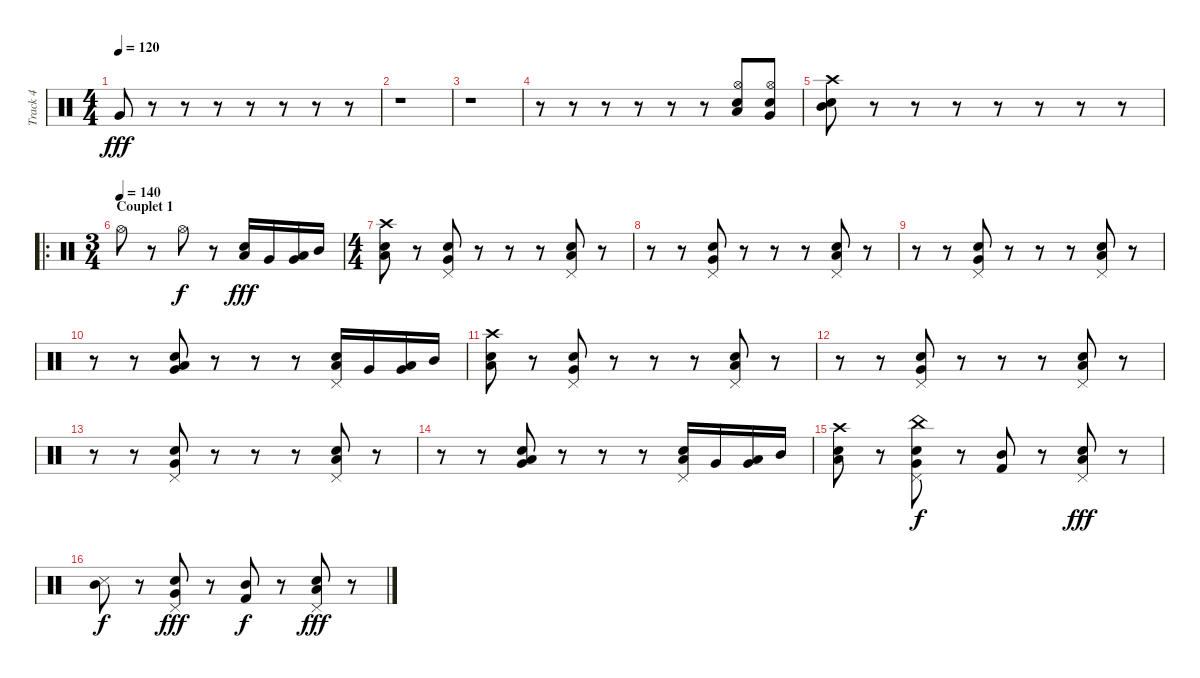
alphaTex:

\track ("Track 4" "Track 4") {instrument percussion}
\staff {score}
\articulation defaults
\ts (4 4)
\tempo 120
\clef neutral
\ks c "Very Low Tom (hit)".8{dy fff}
r.8 r.8 r.8 r.8 r.8 r.8 r.8 |
r.1 |
r.1 |
r.8 r.8 r.8 r.8 r.8 r.8 ("Low Tom (hit)" "Hi-Hat (open)" "Electric Snare (hit)").8 ("Hi-Hat (open)" "Very Low Tom (hit)" "Snare (hit) 2").8 |
("Crash high (hit)" "Mid Tom (hit)" "Electric Snare (hit)").8 r.8 r.8 r.8 r.8 r.8 r.8 r.8 |
\ro
\ts (3 4)
\section ("" "Couplet 1")
\tempo (140)
"Hi-Hat (open)".8 r.8 "Hi-Hat (open)".8{dy f} r.8 ("Low Tom (hit)" "Electric Snare (hit)").16{dy fff} "Very Low Tom (hit)".16 ("Very Low Tom (hit)" "Low Tom (hit)").16 "Mid Tom (hit)".16 |
\ts (4 4)
("Electric Snare (hit)" "Low Tom (hit)" "Crash high (hit)").8 r.8 ("Pedal Hi-Hat (hit)" "Snare (hit) 2" "Very Low Tom (hit)").8 r.8 r.8 r.8 ("Low Tom (hit)" "Electric Snare (hit)" "Pedal Hi-Hat (hit)").8 r.8 |
r.8 r.8 ("Pedal Hi-Hat (hit)" "Snare (hit) 2" "Very Low Tom (hit)").8 r.8 r.8 r.8 ("Low Tom (hit)" "Electric Snare (hit)" "Pedal Hi-Hat (hit)").8 r.8 |
r.8 r.8 ("Pedal Hi-Hat (hit)" "Snare (hit) 2" "Very Low Tom (hit)").8 r.8 r.8 r.8 ("Low Tom (hit)" "Electric Snare (hit)" "Pedal Hi-Hat (hit)").8 r.8 |
r.8 r.8 ("Snare (hit) 2" "Low Tom (hit)" "Very Low Tom (hit)").8 r.8 r.8 r.8 ("Low Tom (hit)" "Pedal Hi-Hat (hit)" "Electric Snare (hit)").16 "Very Low Tom (hit)".16 ("Very Low Tom (hit)" "Low Tom (hit)").16 "Mid Tom (hit)".16 |
("Electric Snare (hit)" "Low Tom (hit)" "Crash high (hit)").8 r.8 ("Pedal Hi-Hat (hit)" "Snare (hit) 2" "Very Low Tom (hit)").8 r.8 r.8 r.8 ("Low Tom (hit)" "Electric Snare (hit)" "Pedal Hi-Hat (hit)").8 r.8 |
r.8 r.8 ("Pedal Hi-Hat (hit)" "Snare (hit) 2" "Very Low Tom (hit)").8 r.8 r.8 r.8 ("Low Tom (hit)" "Electric Snare (hit)" "Pedal Hi-Hat (hit)").8 r.8 |
r.8 r.8 ("Pedal Hi-Hat (hit)" "Snare (hit) 2" "Very Low Tom (hit)").8 r.8 r.8 r.8 ("Low Tom (hit)" "Electric Snare (hit)" "Pedal Hi-Hat (hit)").8 r.8 |
r.8 r.8 ("Snare (hit) 2" "Low Tom (hit)" "Very Low Tom (hit)").8 r.8 r.8 r.8 ("Low Tom (hit)" "Pedal Hi-Hat (hit)" "Electric Snare (hit)").16 "Very Low Tom (hit)".16 ("Very Low Tom (hit)" "Low Tom (hit)").16 "Mid Tom (hit)".16 |
("Electric Snare (hit)" "Low Tom (hit)" "Crash high (hit)").8 r.8 ("Pedal Hi-Hat (hit)" "Snare (hit) 2" "Very Low Tom (hit)" "China (hit)").8{dy f} r.8 ("Mid Tom (hit)" "Kick (hit) 2").8 r.8 ("Low Tom (hit)" "Electric Snare (hit)" "Pedal Hi-Hat (hit)").8{dy fff} r.8 |
("Mid Tom (hit)" "Snare (side stick) 3").8{dy f} r.8 ("Pedal Hi-Hat (hit)" "Snare (hit) 2" "Very Low Tom (hit)").8{dy fff} r.8 ("Mid Tom (hit)" "Kick (hit) 2").8{dy f} r.8 ("Low Tom (hit)" "Electric Snare (hit)" "Pedal Hi-Hat (hit)").8{dy fff} r.8
